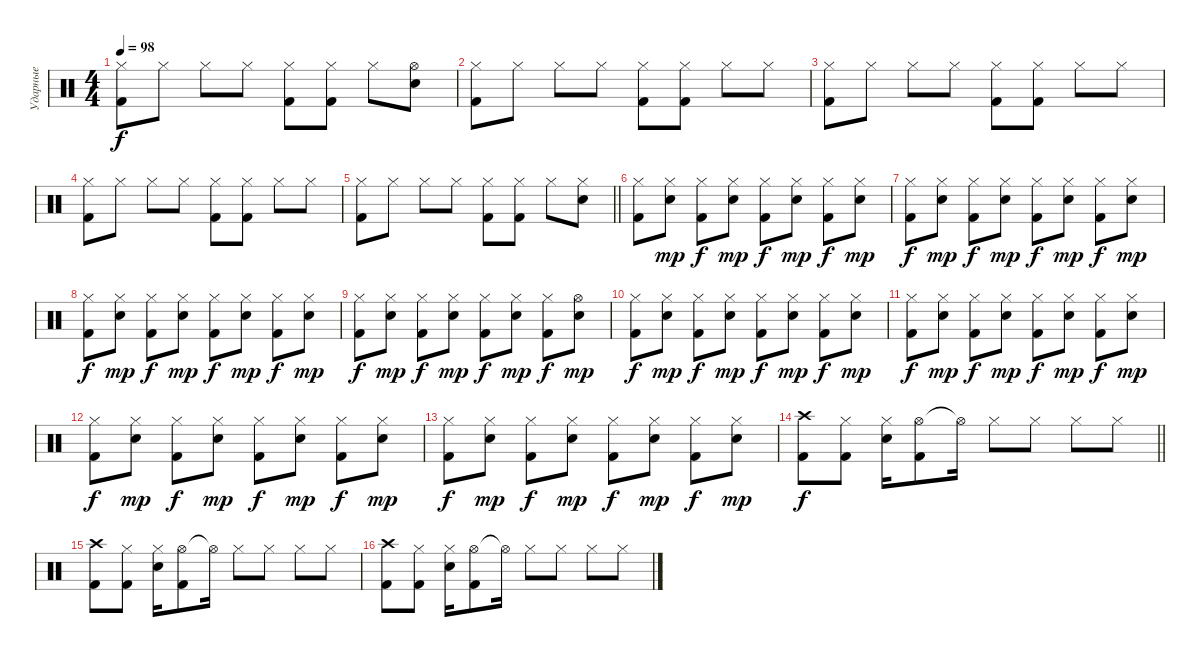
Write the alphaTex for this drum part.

\track ("Ударные" "Ударные") {instrument percussion}
\staff {score}
\articulation defaults
\ts (4 4)
\tempo 98
\clef neutral
\ks c
("Hi-Hat (closed)" "Kick (hit) 2").8{dy f} "Hi-Hat (closed)".8 "Hi-Hat (closed)".8 "Hi-Hat (closed)".8 ("Hi-Hat (closed)" "Kick (hit) 2").8 ("Hi-Hat (closed)" "Kick (hit) 2").8 "Hi-Hat (closed)".8 ("Hi-Hat (open)" "Snare (hit) 2").8 |
("Hi-Hat (closed)" "Kick (hit) 2").8 "Hi-Hat (closed)".8 "Hi-Hat (closed)".8 "Hi-Hat (closed)".8 ("Hi-Hat (closed)" "Kick (hit) 2").8 ("Hi-Hat (closed)" "Kick (hit) 2").8 "Hi-Hat (closed)".8 "Hi-Hat (closed)".8 |
("Hi-Hat (closed)" "Kick (hit) 2").8 "Hi-Hat (closed)".8 "Hi-Hat (closed)".8 "Hi-Hat (closed)".8 ("Hi-Hat (closed)" "Kick (hit) 2").8 ("Hi-Hat (closed)" "Kick (hit) 2").8 "Hi-Hat (closed)".8 "Hi-Hat (closed)".8 |
("Hi-Hat (closed)" "Kick (hit) 2").8 "Hi-Hat (closed)".8 "Hi-Hat (closed)".8 "Hi-Hat (closed)".8 ("Hi-Hat (closed)" "Kick (hit) 2").8 ("Hi-Hat (closed)" "Kick (hit) 2").8 "Hi-Hat (closed)".8 "Hi-Hat (closed)".8 |
\barLineRight lightlight
("Hi-Hat (closed)" "Kick (hit) 2").8 "Hi-Hat (closed)".8 "Hi-Hat (closed)".8 "Hi-Hat (closed)".8 ("Hi-Hat (closed)" "Kick (hit) 2").8 ("Hi-Hat (closed)" "Kick (hit) 2").8 "Hi-Hat (closed)".8 ("Hi-Hat (closed)" "Snare (hit) 2").8 |
("Hi-Hat (closed)" "Kick (hit) 2").8 ("Hi-Hat (closed)" "Snare (hit) 2").8{dy mp} ("Hi-Hat (closed)" "Kick (hit) 2").8{dy f} ("Hi-Hat (closed)" "Snare (hit) 2").8{dy mp} ("Hi-Hat (closed)" "Kick (hit) 2").8{dy f} ("Hi-Hat (closed)" "Snare (hit) 2").8{dy mp} ("Hi-Hat (closed)" "Kick (hit) 2").8{dy f} ("Hi-Hat (closed)" "Snare (hit) 2").8{dy mp} |
("Hi-Hat (closed)" "Kick (hit) 2").8{dy f} ("Hi-Hat (closed)" "Snare (hit) 2").8{dy mp} ("Hi-Hat (closed)" "Kick (hit) 2").8{dy f} ("Hi-Hat (closed)" "Snare (hit) 2").8{dy mp} ("Hi-Hat (closed)" "Kick (hit) 2").8{dy f} ("Hi-Hat (closed)" "Snare (hit) 2").8{dy mp} ("Hi-Hat (closed)" "Kick (hit) 2").8{dy f} ("Hi-Hat (closed)" "Snare (hit) 2").8{dy mp} |
("Hi-Hat (closed)" "Kick (hit) 2").8{dy f} ("Hi-Hat (closed)" "Snare (hit) 2").8{dy mp} ("Hi-Hat (closed)" "Kick (hit) 2").8{dy f} ("Hi-Hat (closed)" "Snare (hit) 2").8{dy mp} ("Hi-Hat (closed)" "Kick (hit) 2").8{dy f} ("Hi-Hat (closed)" "Snare (hit) 2").8{dy mp} ("Hi-Hat (closed)" "Kick (hit) 2").8{dy f} ("Hi-Hat (closed)" "Snare (hit) 2").8{dy mp} |
("Hi-Hat (closed)" "Kick (hit) 2").8{dy f} ("Hi-Hat (closed)" "Snare (hit) 2").8{dy mp} ("Hi-Hat (closed)" "Kick (hit) 2").8{dy f} ("Hi-Hat (closed)" "Snare (hit) 2").8{dy mp} ("Hi-Hat (closed)" "Kick (hit) 2").8{dy f} ("Hi-Hat (closed)" "Snare (hit) 2").8{dy mp} ("Hi-Hat (closed)" "Kick (hit) 2").8{dy f} ("Hi-Hat (open)" "Snare (hit) 2").8{dy mp} |
("Hi-Hat (closed)" "Kick (hit) 2").8{dy f} ("Hi-Hat (closed)" "Snare (hit) 2").8{dy mp} ("Hi-Hat (closed)" "Kick (hit) 2").8{dy f} ("Hi-Hat (closed)" "Snare (hit) 2").8{dy mp} ("Hi-Hat (closed)" "Kick (hit) 2").8{dy f} ("Hi-Hat (closed)" "Snare (hit) 2").8{dy mp} ("Hi-Hat (closed)" "Kick (hit) 2").8{dy f} ("Hi-Hat (closed)" "Snare (hit) 2").8{dy mp} |
("Hi-Hat (closed)" "Kick (hit) 2").8{dy f} ("Hi-Hat (closed)" "Snare (hit) 2").8{dy mp} ("Hi-Hat (closed)" "Kick (hit) 2").8{dy f} ("Hi-Hat (closed)" "Snare (hit) 2").8{dy mp} ("Hi-Hat (closed)" "Kick (hit) 2").8{dy f} ("Hi-Hat (closed)" "Snare (hit) 2").8{dy mp} ("Hi-Hat (closed)" "Kick (hit) 2").8{dy f} ("Hi-Hat (closed)" "Snare (hit) 2").8{dy mp} |
("Hi-Hat (closed)" "Kick (hit) 2").8{dy f} ("Hi-Hat (closed)" "Snare (hit) 2").8{dy mp} ("Hi-Hat (closed)" "Kick (hit) 2").8{dy f} ("Hi-Hat (closed)" "Snare (hit) 2").8{dy mp} ("Hi-Hat (closed)" "Kick (hit) 2").8{dy f} ("Hi-Hat (closed)" "Snare (hit) 2").8{dy mp} ("Hi-Hat (closed)" "Kick (hit) 2").8{dy f} ("Hi-Hat (closed)" "Snare (hit) 2").8{dy mp} |
("Hi-Hat (closed)" "Kick (hit) 2").8{dy f} ("Hi-Hat (closed)" "Snare (hit) 2").8{dy mp} ("Hi-Hat (closed)" "Kick (hit) 2").8{dy f} ("Hi-Hat (closed)" "Snare (hit) 2").8{dy mp} ("Hi-Hat (closed)" "Kick (hit) 2").8{dy f} ("Hi-Hat (closed)" "Snare (hit) 2").8{dy mp} ("Hi-Hat (closed)" "Kick (hit) 2").8{dy f} ("Hi-Hat (closed)" "Snare (hit) 2").8{dy mp} |
\barLineRight lightlight
("Crash high (hit)" "Kick (hit) 2").8{dy f} ("Hi-Hat (closed)" "Kick (hit) 2").8 ("Hi-Hat (closed)" "Snare (hit) 2").16 ("Hi-Hat (open)" "Kick (hit) 2").8 "Hi-Hat (open)"{t}.16 "Hi-Hat (closed)".8 "Hi-Hat (closed)".8 "Hi-Hat (closed)".8 "Hi-Hat (closed)".8 |
("Crash high (hit)" "Kick (hit) 2").8 ("Hi-Hat (closed)" "Kick (hit) 2").8 ("Hi-Hat (closed)" "Snare (hit) 2").16 ("Hi-Hat (open)" "Kick (hit) 2").8 "Hi-Hat (open)"{t}.16 "Hi-Hat (closed)".8 "Hi-Hat (closed)".8 "Hi-Hat (closed)".8 "Hi-Hat (closed)".8 |
("Crash high (hit)" "Kick (hit) 2").8 ("Hi-Hat (closed)" "Kick (hit) 2").8 ("Hi-Hat (closed)" "Snare (hit) 2").16 ("Hi-Hat (open)" "Kick (hit) 2").8 "Hi-Hat (open)"{t}.16 "Hi-Hat (closed)".8 "Hi-Hat (closed)".8 "Hi-Hat (closed)".8 "Hi-Hat (closed)".8
